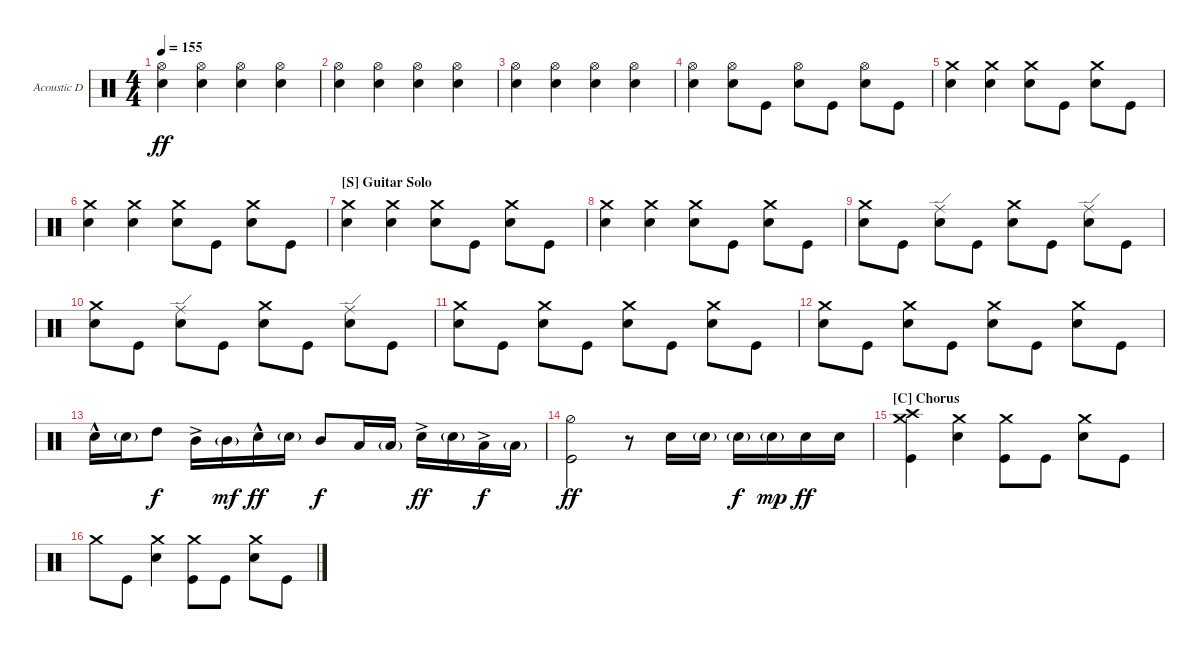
\defaultSystemsLayout 4
\bracketExtendMode groupsimilarinstruments
\firstSystemTrackNameOrientation horizontal
\otherSystemsTrackNameOrientation horizontal
\track ("Acoustic Drums" "Acoustic D") {instrument percussion}
\staff {score}
\articulation defaults
\ts (4 4)
\tempo 155
\clef neutral
\ks c
("Snare (hit) 2" "Hi-Hat (open)").4{dy ff} ("Hi-Hat (open)" "Snare (hit) 2").4 ("Hi-Hat (open)" "Snare (hit) 2").4 ("Hi-Hat (open)" "Snare (hit) 2").4 |
("Snare (hit) 2" "Hi-Hat (open)").4 ("Hi-Hat (open)" "Snare (hit) 2").4 ("Hi-Hat (open)" "Snare (hit) 2").4 ("Hi-Hat (open)" "Snare (hit) 2").4 |
("Snare (hit) 2" "Hi-Hat (open)").4 ("Hi-Hat (open)" "Snare (hit) 2").4 ("Hi-Hat (open)" "Snare (hit) 2").4 ("Hi-Hat (open)" "Snare (hit) 2").4 |
("Snare (hit) 2" "Hi-Hat (open)").4 ("Hi-Hat (open)" "Snare (hit) 2").8 "Kick (hit)".8 ("Hi-Hat (open)" "Snare (hit) 2").8 "Kick (hit)".8 ("Hi-Hat (open)" "Snare (hit) 2").8 "Kick (hit)".8 |
("Snare (hit) 2" "Crash medium (hit)").4 ("Snare (hit) 2" "Crash medium (hit)").4 ("Snare (hit) 2" "Crash medium (hit)").8 "Kick (hit)".8 ("Snare (hit) 2" "Crash medium (hit)").8 "Kick (hit)".8 |
("Snare (hit) 2" "Crash medium (hit)").4 ("Snare (hit) 2" "Crash medium (hit)").4 ("Snare (hit) 2" "Crash medium (hit)").8 "Kick (hit)".8 ("Snare (hit) 2" "Crash medium (hit)").8 "Kick (hit)".8 |
\section ("S" "Guitar Solo")
("Snare (hit) 2" "Crash medium (hit)").4 ("Snare (hit) 2" "Crash medium (hit)").4 ("Snare (hit) 2" "Crash medium (hit)").8 "Kick (hit)".8 ("Snare (hit) 2" "Crash medium (hit)").8 "Kick (hit)".8 |
("Snare (hit) 2" "Crash medium (hit)").4 ("Snare (hit) 2" "Crash medium (hit)").4 ("Snare (hit) 2" "Crash medium (hit)").8 "Kick (hit)".8 ("Snare (hit) 2" "Crash medium (hit)").8 "Kick (hit)".8 |
("Snare (hit) 2" "Crash medium (hit)").8 "Kick (hit)".8 ("Snare (hit) 2" "Ride (edge)").8 "Kick (hit)".8 ("Snare (hit) 2" "Crash medium (hit)").8 "Kick (hit)".8 ("Snare (hit) 2" "Ride (edge)").8 "Kick (hit)".8 |
("Snare (hit) 2" "Crash medium (hit)").8 "Kick (hit)".8 ("Snare (hit) 2" "Ride (edge)").8 "Kick (hit)".8 ("Snare (hit) 2" "Crash medium (hit)").8 "Kick (hit)".8 ("Snare (hit) 2" "Ride (edge)").8 "Kick (hit)".8 |
("Snare (hit) 2" "Crash medium (hit)").8 "Kick (hit)".8 ("Snare (hit) 2" "Crash medium (hit)").8 "Kick (hit)".8 ("Snare (hit) 2" "Crash medium (hit)").8 "Kick (hit)".8 ("Snare (hit) 2" "Crash medium (hit)").8 "Kick (hit)".8 |
("Snare (hit) 2" "Crash medium (hit)").8 "Kick (hit)".8 ("Snare (hit) 2" "Crash medium (hit)").8 "Kick (hit)".8 ("Snare (hit) 2" "Crash medium (hit)").8 "Kick (hit)".8 ("Snare (hit) 2" "Crash medium (hit)").8 "Kick (hit)".8 |
"Snare (hit) 2"{hac}.16 "Snare (hit) 2"{g}.16 "High Tom (hit)".8{dy f} "Mid Tom (hit)"{ac}.16 "Mid Tom (hit)"{g}.16{dy mf} "Snare (hit) 2"{hac}.16{dy ff} "Snare (hit) 2"{g}.16 "Mid Tom (hit)".8{dy f} "Low Tom (hit)".16 "Low Tom (hit)"{g}.16 "Snare (hit) 2"{ac}.16{dy ff} "Snare (hit) 2"{g}.16 "Low Tom (hit)"{ac}.16{dy f} "Low Tom (hit)"{g}.16 |
("Kick (hit)" "Hi-Hat (half)").2{dy ff} r.8 "Snare (hit) 2".16 "Snare (hit) 2"{g}.16 "Snare (hit) 2"{g}.16{dy f} "Snare (hit) 2"{g}.16{dy mp} "Snare (hit) 2".16{dy ff} "Snare (hit) 2".16 |
\section ("C" "Chorus")
("Crash high (hit)" "Crash medium (hit)" "Kick (hit)").4 ("Crash medium (hit)" "Snare (hit) 2").4 ("Crash medium (hit)" "Kick (hit)").8 "Kick (hit)".8 ("Crash medium (hit)" "Snare (hit) 2").8 "Kick (hit)".8 |
"Crash medium (hit)".8 "Kick (hit)".8 ("Crash medium (hit)" "Snare (hit) 2").4 ("Crash medium (hit)" "Kick (hit)").8 "Kick (hit)".8 ("Crash medium (hit)" "Snare (hit) 2").8 "Kick (hit)".8
